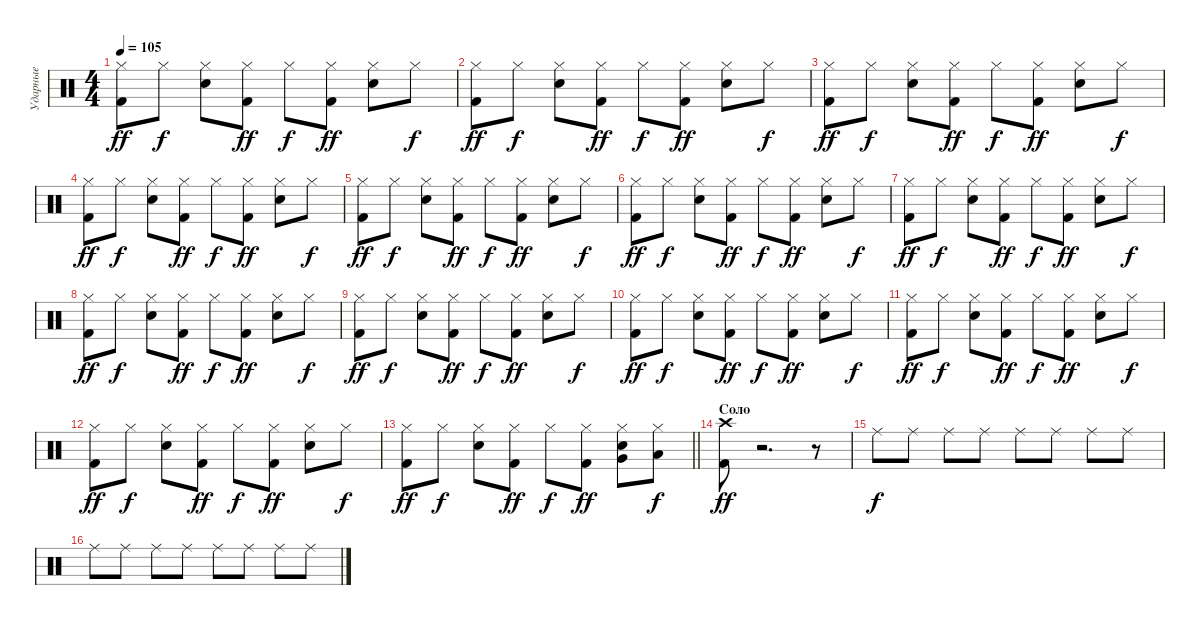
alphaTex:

\track ("Ударные" "Ударные") {solo instrument percussion}
\staff {score}
\articulation defaults
\ts (4 4)
\tempo 105
\clef neutral
\ks c
("Kick (hit) 2" "Hi-Hat (closed)").8{dy ff} "Hi-Hat (closed)".8{dy f} ("Snare (hit) 2" "Hi-Hat (closed)").8 ("Kick (hit) 2" "Hi-Hat (closed)").8{dy ff} "Hi-Hat (closed)".8{dy f} ("Kick (hit) 2" "Hi-Hat (closed)").8{dy ff} ("Snare (hit) 2" "Hi-Hat (closed)").8 "Hi-Hat (closed)".8{dy f} |
("Kick (hit) 2" "Hi-Hat (closed)").8{dy ff} "Hi-Hat (closed)".8{dy f} ("Snare (hit) 2" "Hi-Hat (closed)").8 ("Kick (hit) 2" "Hi-Hat (closed)").8{dy ff} "Hi-Hat (closed)".8{dy f} ("Kick (hit) 2" "Hi-Hat (closed)").8{dy ff} ("Snare (hit) 2" "Hi-Hat (closed)").8 "Hi-Hat (closed)".8{dy f} |
("Kick (hit) 2" "Hi-Hat (closed)").8{dy ff} "Hi-Hat (closed)".8{dy f} ("Snare (hit) 2" "Hi-Hat (closed)").8 ("Kick (hit) 2" "Hi-Hat (closed)").8{dy ff} "Hi-Hat (closed)".8{dy f} ("Kick (hit) 2" "Hi-Hat (closed)").8{dy ff} ("Snare (hit) 2" "Hi-Hat (closed)").8 "Hi-Hat (closed)".8{dy f} |
("Kick (hit) 2" "Hi-Hat (closed)").8{dy ff} "Hi-Hat (closed)".8{dy f} ("Snare (hit) 2" "Hi-Hat (closed)").8 ("Kick (hit) 2" "Hi-Hat (closed)").8{dy ff} "Hi-Hat (closed)".8{dy f} ("Kick (hit) 2" "Hi-Hat (closed)").8{dy ff} ("Snare (hit) 2" "Hi-Hat (closed)").8 "Hi-Hat (closed)".8{dy f} |
("Kick (hit) 2" "Hi-Hat (closed)").8{dy ff} "Hi-Hat (closed)".8{dy f} ("Snare (hit) 2" "Hi-Hat (closed)").8 ("Kick (hit) 2" "Hi-Hat (closed)").8{dy ff} "Hi-Hat (closed)".8{dy f} ("Kick (hit) 2" "Hi-Hat (closed)").8{dy ff} ("Snare (hit) 2" "Hi-Hat (closed)").8 "Hi-Hat (closed)".8{dy f} |
("Kick (hit) 2" "Hi-Hat (closed)").8{dy ff} "Hi-Hat (closed)".8{dy f} ("Snare (hit) 2" "Hi-Hat (closed)").8 ("Kick (hit) 2" "Hi-Hat (closed)").8{dy ff} "Hi-Hat (closed)".8{dy f} ("Kick (hit) 2" "Hi-Hat (closed)").8{dy ff} ("Snare (hit) 2" "Hi-Hat (closed)").8 "Hi-Hat (closed)".8{dy f} |
("Kick (hit) 2" "Hi-Hat (closed)").8{dy ff} "Hi-Hat (closed)".8{dy f} ("Snare (hit) 2" "Hi-Hat (closed)").8 ("Kick (hit) 2" "Hi-Hat (closed)").8{dy ff} "Hi-Hat (closed)".8{dy f} ("Kick (hit) 2" "Hi-Hat (closed)").8{dy ff} ("Snare (hit) 2" "Hi-Hat (closed)").8 "Hi-Hat (closed)".8{dy f} |
("Kick (hit) 2" "Hi-Hat (closed)").8{dy ff} "Hi-Hat (closed)".8{dy f} ("Snare (hit) 2" "Hi-Hat (closed)").8 ("Kick (hit) 2" "Hi-Hat (closed)").8{dy ff} "Hi-Hat (closed)".8{dy f} ("Kick (hit) 2" "Hi-Hat (closed)").8{dy ff} ("Snare (hit) 2" "Hi-Hat (closed)").8 "Hi-Hat (closed)".8{dy f} |
("Kick (hit) 2" "Hi-Hat (closed)").8{dy ff} "Hi-Hat (closed)".8{dy f} ("Snare (hit) 2" "Hi-Hat (closed)").8 ("Kick (hit) 2" "Hi-Hat (closed)").8{dy ff} "Hi-Hat (closed)".8{dy f} ("Kick (hit) 2" "Hi-Hat (closed)").8{dy ff} ("Snare (hit) 2" "Hi-Hat (closed)").8 "Hi-Hat (closed)".8{dy f} |
("Kick (hit) 2" "Hi-Hat (closed)").8{dy ff} "Hi-Hat (closed)".8{dy f} ("Snare (hit) 2" "Hi-Hat (closed)").8 ("Kick (hit) 2" "Hi-Hat (closed)").8{dy ff} "Hi-Hat (closed)".8{dy f} ("Kick (hit) 2" "Hi-Hat (closed)").8{dy ff} ("Snare (hit) 2" "Hi-Hat (closed)").8 "Hi-Hat (closed)".8{dy f} |
("Kick (hit) 2" "Hi-Hat (closed)").8{dy ff} "Hi-Hat (closed)".8{dy f} ("Snare (hit) 2" "Hi-Hat (closed)").8 ("Kick (hit) 2" "Hi-Hat (closed)").8{dy ff} "Hi-Hat (closed)".8{dy f} ("Kick (hit) 2" "Hi-Hat (closed)").8{dy ff} ("Snare (hit) 2" "Hi-Hat (closed)").8 "Hi-Hat (closed)".8{dy f} |
("Kick (hit) 2" "Hi-Hat (closed)").8{dy ff} "Hi-Hat (closed)".8{dy f} ("Snare (hit) 2" "Hi-Hat (closed)").8 ("Kick (hit) 2" "Hi-Hat (closed)").8{dy ff} "Hi-Hat (closed)".8{dy f} ("Kick (hit) 2" "Hi-Hat (closed)").8{dy ff} ("Snare (hit) 2" "Hi-Hat (closed)").8 "Hi-Hat (closed)".8{dy f} |
\barLineRight lightlight
("Kick (hit) 2" "Hi-Hat (closed)").8{dy ff} "Hi-Hat (closed)".8{dy f} ("Snare (hit) 2" "Hi-Hat (closed)").8 ("Kick (hit) 2" "Hi-Hat (closed)").8{dy ff} "Hi-Hat (closed)".8{dy f} ("Kick (hit) 2" "Hi-Hat (closed)").8{dy ff} ("Snare (hit) 2" "Very Low Tom (hit)" "Hi-Hat (closed)").8 ("Low Floor Tom (hit)" "Hi-Hat (closed)").8{dy f} |
\section ("" "Соло")
("Kick (hit) 2" "Crash high (hit)").8{dy ff} r.2{d} r.8 |
"Ride (middle)".8{dy f} "Ride (middle)".8 "Ride (middle)".8 "Ride (middle)".8 "Ride (middle)".8 "Ride (middle)".8 "Ride (middle)".8 "Ride (middle)".8 |
"Ride (middle)".8 "Ride (middle)".8 "Ride (middle)".8 "Ride (middle)".8 "Ride (middle)".8 "Ride (middle)".8 "Ride (middle)".8 "Ride (middle)".8
